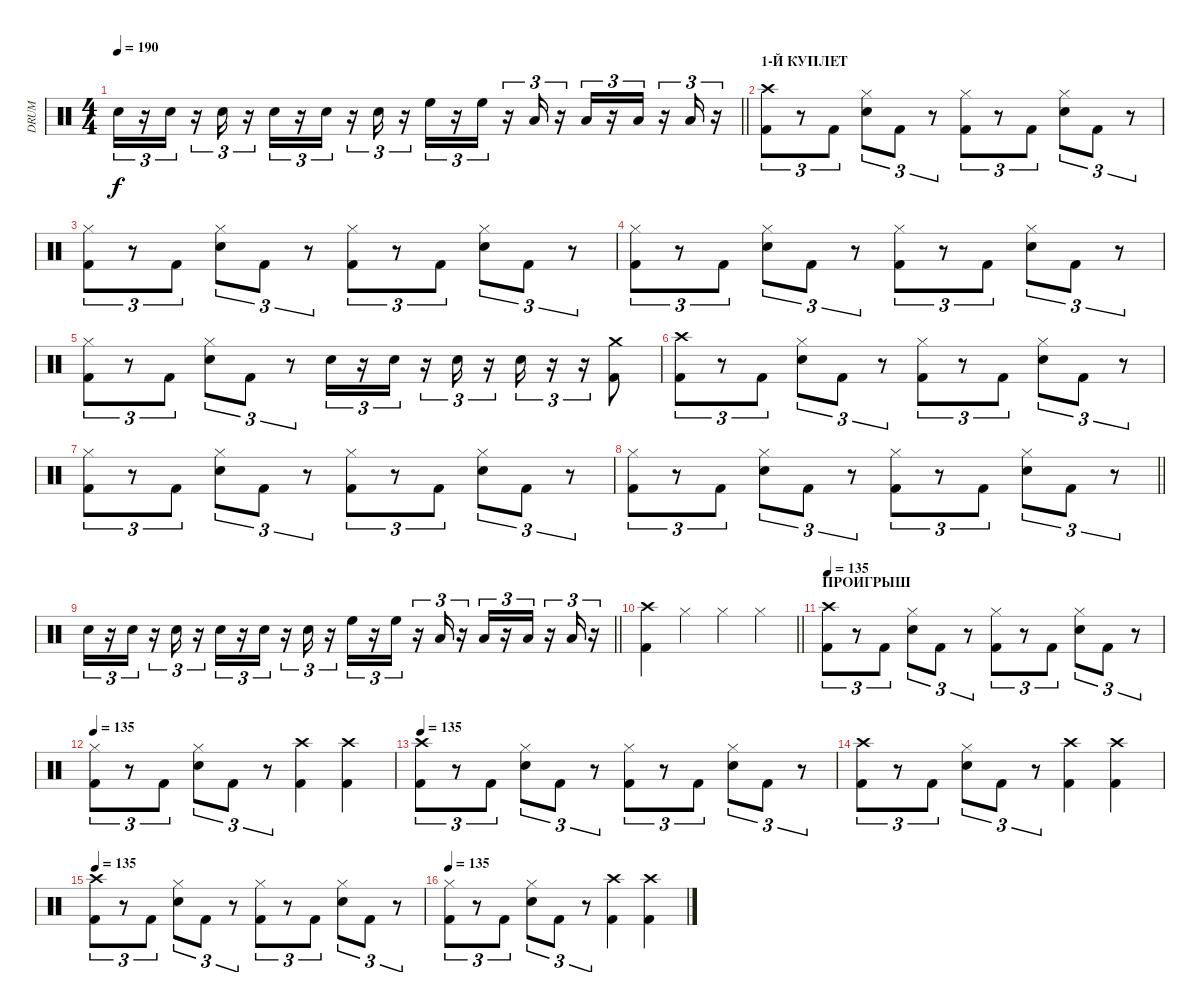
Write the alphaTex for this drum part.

\track ("DRUM" "DRUM") {instrument percussion bank 127}
\staff {score}
\articulation defaults
\ts (4 4)
\tempo 190
\clef neutral
\barLineRight lightlight
\ks c "Electric Snare (hit)".16{tu (3 2) dy f}
r.16{tu (3 2)} "Electric Snare (hit)".16{tu (3 2)} r.16{tu (3 2)} "Electric Snare (hit)".16{tu (3 2)} r.16{tu (3 2)} "Electric Snare (hit)".16{tu (3 2)} r.16{tu (3 2)} "Electric Snare (hit)".16{tu (3 2)} r.16{tu (3 2)} "Electric Snare (hit)".16{tu (3 2)} r.16{tu (3 2)} "High Floor Tom (hit)".16{tu (3 2)} r.16{tu (3 2)} "High Floor Tom (hit)".16{tu (3 2)} r.16{tu (3 2)} "Low Tom (hit)".16{tu (3 2)} r.16{tu (3 2)} "Low Tom (hit)".16{tu (3 2)} r.16{tu (3 2)} "Low Tom (hit)".16{tu (3 2)} r.16{tu (3 2)} "Low Tom (hit)".16{tu (3 2)} r.16{tu (3 2)} |
\section ("" "1-Й КУПЛЕТ")
("Crash high (hit)" "Kick (hit) 2").8{tu (3 2)} r.8{tu (3 2)} "Kick (hit) 2".8{tu (3 2)} ("Hi-Hat (closed)" "Electric Snare (hit)").8{tu (3 2)} "Kick (hit) 2".8{tu (3 2)} r.8{tu (3 2)} ("Hi-Hat (closed)" "Kick (hit) 2").8{tu (3 2)} r.8{tu (3 2)} "Kick (hit) 2".8{tu (3 2)} ("Hi-Hat (closed)" "Electric Snare (hit)").8{tu (3 2)} "Kick (hit) 2".8{tu (3 2)} r.8{tu (3 2)} |
("Hi-Hat (closed)" "Kick (hit) 2").8{tu (3 2)} r.8{tu (3 2)} "Kick (hit) 2".8{tu (3 2)} ("Hi-Hat (closed)" "Electric Snare (hit)").8{tu (3 2)} "Kick (hit) 2".8{tu (3 2)} r.8{tu (3 2)} ("Hi-Hat (closed)" "Kick (hit) 2").8{tu (3 2)} r.8{tu (3 2)} "Kick (hit) 2".8{tu (3 2)} ("Hi-Hat (closed)" "Electric Snare (hit)").8{tu (3 2)} "Kick (hit) 2".8{tu (3 2)} r.8{tu (3 2)} |
("Hi-Hat (closed)" "Kick (hit) 2").8{tu (3 2)} r.8{tu (3 2)} "Kick (hit) 2".8{tu (3 2)} ("Hi-Hat (closed)" "Electric Snare (hit)").8{tu (3 2)} "Kick (hit) 2".8{tu (3 2)} r.8{tu (3 2)} ("Hi-Hat (closed)" "Kick (hit) 2").8{tu (3 2)} r.8{tu (3 2)} "Kick (hit) 2".8{tu (3 2)} ("Hi-Hat (closed)" "Electric Snare (hit)").8{tu (3 2)} "Kick (hit) 2".8{tu (3 2)} r.8{tu (3 2)} |
("Hi-Hat (closed)" "Kick (hit) 2").8{tu (3 2)} r.8{tu (3 2)} "Kick (hit) 2".8{tu (3 2)} ("Electric Snare (hit)" "Hi-Hat (closed)").8{tu (3 2)} "Kick (hit) 2".8{tu (3 2)} r.8{tu (3 2)} "Electric Snare (hit)".16{tu (3 2)} r.16{tu (3 2)} "Electric Snare (hit)".16{tu (3 2)} r.16{tu (3 2)} "Electric Snare (hit)".16{tu (3 2)} r.16{tu (3 2)} "Electric Snare (hit)".16{tu (3 2)} r.16{tu (3 2)} r.16{tu (3 2)} ("Crash medium (hit)" "Kick (hit) 2").8 |
("Crash high (hit)" "Kick (hit) 2").8{tu (3 2)} r.8{tu (3 2)} "Kick (hit) 2".8{tu (3 2)} ("Hi-Hat (closed)" "Electric Snare (hit)").8{tu (3 2)} "Kick (hit) 2".8{tu (3 2)} r.8{tu (3 2)} ("Hi-Hat (closed)" "Kick (hit) 2").8{tu (3 2)} r.8{tu (3 2)} "Kick (hit) 2".8{tu (3 2)} ("Hi-Hat (closed)" "Electric Snare (hit)").8{tu (3 2)} "Kick (hit) 2".8{tu (3 2)} r.8{tu (3 2)} |
("Hi-Hat (closed)" "Kick (hit) 2").8{tu (3 2)} r.8{tu (3 2)} "Kick (hit) 2".8{tu (3 2)} ("Hi-Hat (closed)" "Electric Snare (hit)").8{tu (3 2)} "Kick (hit) 2".8{tu (3 2)} r.8{tu (3 2)} ("Hi-Hat (closed)" "Kick (hit) 2").8{tu (3 2)} r.8{tu (3 2)} "Kick (hit) 2".8{tu (3 2)} ("Hi-Hat (closed)" "Electric Snare (hit)").8{tu (3 2)} "Kick (hit) 2".8{tu (3 2)} r.8{tu (3 2)} |
\barLineRight lightlight
("Hi-Hat (closed)" "Kick (hit) 2").8{tu (3 2)} r.8{tu (3 2)} "Kick (hit) 2".8{tu (3 2)} ("Hi-Hat (closed)" "Electric Snare (hit)").8{tu (3 2)} "Kick (hit) 2".8{tu (3 2)} r.8{tu (3 2)} ("Hi-Hat (closed)" "Kick (hit) 2").8{tu (3 2)} r.8{tu (3 2)} "Kick (hit) 2".8{tu (3 2)} ("Hi-Hat (closed)" "Electric Snare (hit)").8{tu (3 2)} "Kick (hit) 2".8{tu (3 2)} r.8{tu (3 2)} |
\section ("" "")
\barLineRight lightlight "Electric Snare (hit)".16{tu (3 2)}
r.16{tu (3 2)} "Electric Snare (hit)".16{tu (3 2)} r.16{tu (3 2)} "Electric Snare (hit)".16{tu (3 2)} r.16{tu (3 2)} "Electric Snare (hit)".16{tu (3 2)} r.16{tu (3 2)} "Electric Snare (hit)".16{tu (3 2)} r.16{tu (3 2)} "Electric Snare (hit)".16{tu (3 2)} r.16{tu (3 2)} "High Floor Tom (hit)".16{tu (3 2)} r.16{tu (3 2)} "High Floor Tom (hit)".16{tu (3 2)} r.16{tu (3 2)} "Low Tom (hit)".16{tu (3 2)} r.16{tu (3 2)} "Low Tom (hit)".16{tu (3 2)} r.16{tu (3 2)} "Low Tom (hit)".16{tu (3 2)} r.16{tu (3 2)} "Low Tom (hit)".16{tu (3 2)} r.16{tu (3 2)} |
\barLineRight lightlight
("Crash high (hit)" "Kick (hit) 2").4 "Hi-Hat (closed)".4 "Hi-Hat (closed)".4 "Hi-Hat (closed)".4 |
\section ("" "ПРОИГРЫШ")
\tempo 135
("Crash high (hit)" "Kick (hit) 2").8{tu (3 2)} r.8{tu (3 2)} "Kick (hit) 2".8{tu (3 2)} ("Hi-Hat (closed)" "Electric Snare (hit)").8{tu (3 2)} "Kick (hit) 2".8{tu (3 2)} r.8{tu (3 2)} ("Hi-Hat (closed)" "Kick (hit) 2").8{tu (3 2)} r.8{tu (3 2)} "Kick (hit) 2".8{tu (3 2)} ("Hi-Hat (closed)" "Electric Snare (hit)").8{tu (3 2)} "Kick (hit) 2".8{tu (3 2)} r.8{tu (3 2)} |
\tempo 135
("Hi-Hat (closed)" "Kick (hit) 2").8{tu (3 2)} r.8{tu (3 2)} "Kick (hit) 2".8{tu (3 2)} ("Hi-Hat (closed)" "Electric Snare (hit)").8{tu (3 2)} "Kick (hit) 2".8{tu (3 2)} r.8{tu (3 2)} ("Crash high (hit)" "Kick (hit) 2").4 ("Crash high (hit)" "Kick (hit) 2").4 |
\tempo 135
("Crash high (hit)" "Kick (hit) 2").8{tu (3 2)} r.8{tu (3 2)} "Kick (hit) 2".8{tu (3 2)} ("Hi-Hat (closed)" "Electric Snare (hit)").8{tu (3 2)} "Kick (hit) 2".8{tu (3 2)} r.8{tu (3 2)} ("Hi-Hat (closed)" "Kick (hit) 2").8{tu (3 2)} r.8{tu (3 2)} "Kick (hit) 2".8{tu (3 2)} ("Hi-Hat (closed)" "Electric Snare (hit)").8{tu (3 2)} "Kick (hit) 2".8{tu (3 2)} r.8{tu (3 2)} |
("Kick (hit) 2" "Crash high (hit)").8{tu (3 2)} r.8{tu (3 2)} "Kick (hit) 2".8{tu (3 2)} ("Hi-Hat (closed)" "Electric Snare (hit)").8{tu (3 2)} "Kick (hit) 2".8{tu (3 2)} r.8{tu (3 2)} ("Crash high (hit)" "Kick (hit) 2").4 ("Crash high (hit)" "Kick (hit) 2").4 |
\tempo 135
("Crash high (hit)" "Kick (hit) 2").8{tu (3 2)} r.8{tu (3 2)} "Kick (hit) 2".8{tu (3 2)} ("Hi-Hat (closed)" "Electric Snare (hit)").8{tu (3 2)} "Kick (hit) 2".8{tu (3 2)} r.8{tu (3 2)} ("Hi-Hat (closed)" "Kick (hit) 2").8{tu (3 2)} r.8{tu (3 2)} "Kick (hit) 2".8{tu (3 2)} ("Hi-Hat (closed)" "Electric Snare (hit)").8{tu (3 2)} "Kick (hit) 2".8{tu (3 2)} r.8{tu (3 2)} |
\tempo 135
("Hi-Hat (closed)" "Kick (hit) 2").8{tu (3 2)} r.8{tu (3 2)} "Kick (hit) 2".8{tu (3 2)} ("Hi-Hat (closed)" "Electric Snare (hit)").8{tu (3 2)} "Kick (hit) 2".8{tu (3 2)} r.8{tu (3 2)} ("Crash high (hit)" "Kick (hit) 2").4 ("Crash high (hit)" "Kick (hit) 2").4
